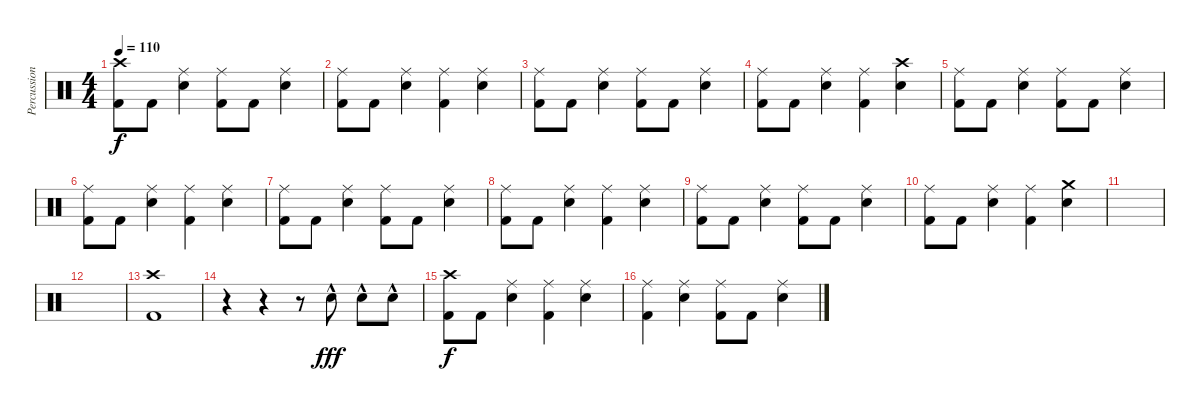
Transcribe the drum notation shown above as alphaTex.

\track ("Percussion" "Percussion") {instrument percussion}
\staff {score}
\articulation defaults
\ts (4 4)
\tempo 110
\clef neutral
\ks c
("Crash high (hit)" "Kick (hit) 2").8{dy f} "Kick (hit) 2".8 ("Ride (middle)" "Snare (hit) 2").4 ("Ride (middle)" "Kick (hit) 2").8 "Kick (hit) 2".8 ("Ride (middle)" "Snare (hit) 2").4 |
("Ride (middle)" "Kick (hit) 2").8 "Kick (hit) 2".8 ("Ride (middle)" "Snare (hit) 2").4 ("Ride (middle)" "Kick (hit) 2").4 ("Ride (middle)" "Snare (hit) 2").4 |
("Ride (middle)" "Kick (hit) 2").8 "Kick (hit) 2".8 ("Ride (middle)" "Snare (hit) 2").4 ("Ride (middle)" "Kick (hit) 2").8 "Kick (hit) 2".8 ("Ride (middle)" "Snare (hit) 2").4 |
("Ride (middle)" "Kick (hit) 2").8 "Kick (hit) 2".8 ("Ride (middle)" "Snare (hit) 2").4 ("Ride (middle)" "Kick (hit) 2").4 ("Crash high (hit)" "Snare (hit) 2").4 |
("Ride (middle)" "Kick (hit) 2").8 "Kick (hit) 2".8 ("Ride (middle)" "Snare (hit) 2").4 ("Ride (middle)" "Kick (hit) 2").8 "Kick (hit) 2".8 ("Ride (middle)" "Snare (hit) 2").4 |
("Ride (middle)" "Kick (hit) 2").8 "Kick (hit) 2".8 ("Ride (middle)" "Snare (hit) 2").4 ("Ride (middle)" "Kick (hit) 2").4 ("Ride (middle)" "Snare (hit) 2").4 |
("Ride (middle)" "Kick (hit) 2").8 "Kick (hit) 2".8 ("Ride (middle)" "Snare (hit) 2").4 ("Ride (middle)" "Kick (hit) 2").8 "Kick (hit) 2".8 ("Ride (middle)" "Snare (hit) 2").4 |
("Ride (middle)" "Kick (hit) 2").8 "Kick (hit) 2".8 ("Ride (middle)" "Snare (hit) 2").4 ("Ride (middle)" "Kick (hit) 2").4 ("Ride (middle)" "Snare (hit) 2").4 |
("Ride (middle)" "Kick (hit) 2").8 "Kick (hit) 2".8 ("Ride (middle)" "Snare (hit) 2").4 ("Ride (middle)" "Kick (hit) 2").8 "Kick (hit) 2".8 ("Ride (middle)" "Snare (hit) 2").4 |
("Ride (middle)" "Kick (hit) 2").8 "Kick (hit) 2".8 ("Ride (middle)" "Snare (hit) 2").4 ("Ride (middle)" "Kick (hit) 2").4 ("Crash medium (hit)" "Snare (hit) 2").4 |
|
|
("Crash high (hit)" "Kick (hit) 2").1 |
r.4 r.4 r.8 "Snare (hit) 2"{hac}.8{dy fff} "Snare (hit) 2"{hac}.8 "Snare (hit) 2"{hac}.8 |
("Crash high (hit)" "Kick (hit) 2").8{dy f} "Kick (hit) 2".8 ("Ride (middle)" "Snare (hit) 2").4 ("Ride (middle)" "Kick (hit) 2").4 ("Ride (middle)" "Snare (hit) 2").4 |
("Ride (middle)" "Kick (hit) 2").4 ("Ride (middle)" "Snare (hit) 2").4 ("Ride (middle)" "Kick (hit) 2").8 "Kick (hit) 2".8 ("Ride (middle)" "Snare (hit) 2").4
